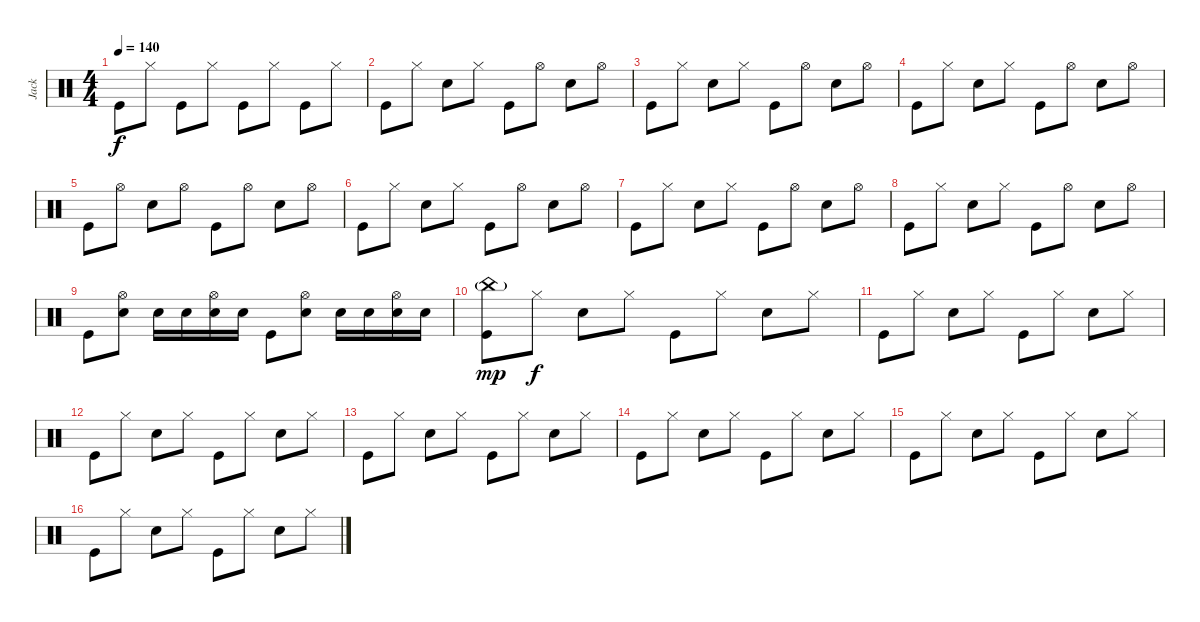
\track ("Jack" "Jack") {instrument percussion}
\staff {score}
\articulation defaults
\ts (4 4)
\tempo 140
\clef neutral
\ks c "Kick (hit)".8{dy f} "Hi-Hat (closed)".8 "Kick (hit)".8 "Hi-Hat (closed)".8 "Kick (hit)".8 "Hi-Hat (closed)".8 "Kick (hit)".8 "Hi-Hat (closed)".8
|
"Kick (hit)".8 "Hi-Hat (closed)".8 "Snare (hit) 2".8 "Hi-Hat (closed)".8 "Kick (hit)".8 "Hi-Hat (open)".8 "Snare (hit) 2".8 "Hi-Hat (open)".8 |
"Kick (hit)".8 "Hi-Hat (closed)".8 "Snare (hit) 2".8 "Hi-Hat (closed)".8 "Kick (hit)".8 "Hi-Hat (open)".8 "Snare (hit) 2".8 "Hi-Hat (open)".8 |
"Kick (hit)".8 "Hi-Hat (closed)".8 "Snare (hit) 2".8 "Hi-Hat (closed)".8 "Kick (hit)".8 "Hi-Hat (open)".8 "Snare (hit) 2".8 "Hi-Hat (open)".8 |
"Kick (hit)".8 "Hi-Hat (open)".8 "Snare (hit) 2".8 "Hi-Hat (open)".8 "Kick (hit)".8 "Hi-Hat (open)".8 "Snare (hit) 2".8 "Hi-Hat (open)".8 |
"Kick (hit)".8 "Hi-Hat (closed)".8 "Snare (hit) 2".8 "Hi-Hat (closed)".8 "Kick (hit)".8 "Hi-Hat (open)".8 "Snare (hit) 2".8 "Hi-Hat (open)".8 |
"Kick (hit)".8 "Hi-Hat (closed)".8 "Snare (hit) 2".8 "Hi-Hat (closed)".8 "Kick (hit)".8 "Hi-Hat (open)".8 "Snare (hit) 2".8 "Hi-Hat (open)".8 |
"Kick (hit)".8 "Hi-Hat (closed)".8 "Snare (hit) 2".8 "Hi-Hat (closed)".8 "Kick (hit)".8 "Hi-Hat (open)".8 "Snare (hit) 2".8 "Hi-Hat (open)".8 |
"Kick (hit)".8 ("Hi-Hat (open)" "Snare (hit) 2").8 "Snare (hit) 2".16 "Snare (hit) 2".16 ("Hi-Hat (open)" "Snare (hit) 2").16 "Snare (hit) 2".16 "Kick (hit)".8 ("Hi-Hat (open)" "Snare (hit) 2").8 "Snare (hit) 2".16 "Snare (hit) 2".16 ("Hi-Hat (open)" "Snare (hit) 2").16 "Snare (hit) 2".16 |
("China (hit)"{g} "Kick (hit)").8{dy mp} "Hi-Hat (closed)".8{dy f} "Snare (hit) 2".8 "Hi-Hat (closed)".8 "Kick (hit)".8 "Hi-Hat (closed)".8 "Snare (hit) 2".8 "Hi-Hat (closed)".8 |
"Kick (hit)".8 "Hi-Hat (closed)".8 "Snare (hit) 2".8 "Hi-Hat (closed)".8 "Kick (hit)".8 "Hi-Hat (closed)".8 "Snare (hit) 2".8 "Hi-Hat (closed)".8 |
"Kick (hit)".8 "Hi-Hat (closed)".8 "Snare (hit) 2".8 "Hi-Hat (closed)".8 "Kick (hit)".8 "Hi-Hat (closed)".8 "Snare (hit) 2".8 "Hi-Hat (closed)".8 |
"Kick (hit)".8 "Hi-Hat (closed)".8 "Snare (hit) 2".8 "Hi-Hat (closed)".8 "Kick (hit)".8 "Hi-Hat (closed)".8 "Snare (hit) 2".8 "Hi-Hat (closed)".8 |
"Kick (hit)".8 "Hi-Hat (closed)".8 "Snare (hit) 2".8 "Hi-Hat (closed)".8 "Kick (hit)".8 "Hi-Hat (closed)".8 "Snare (hit) 2".8 "Hi-Hat (closed)".8 |
"Kick (hit)".8 "Hi-Hat (closed)".8 "Snare (hit) 2".8 "Hi-Hat (closed)".8 "Kick (hit)".8 "Hi-Hat (closed)".8 "Snare (hit) 2".8 "Hi-Hat (closed)".8 |
"Kick (hit)".8 "Hi-Hat (closed)".8 "Snare (hit) 2".8 "Hi-Hat (closed)".8 "Kick (hit)".8 "Hi-Hat (closed)".8 "Snare (hit) 2".8 "Hi-Hat (closed)".8
